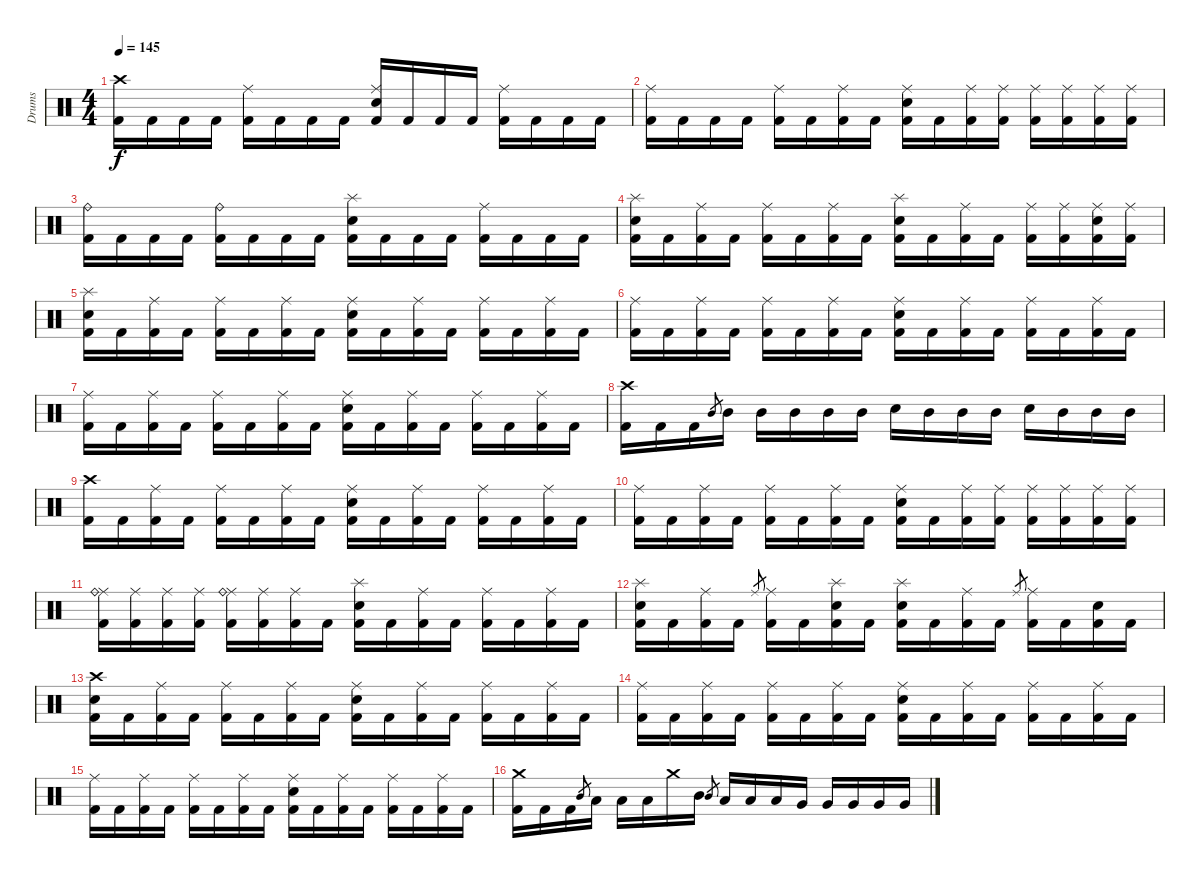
\track ("Drums" "Drums") {instrument percussion}
\staff {score}
\articulation defaults
\ts (4 4)
\tempo 145
\clef neutral
\ks c
("Crash high (hit)" "Kick (hit) 2").16{dy f} "Kick (hit) 2".16 "Kick (hit) 2".16 "Kick (hit) 2".16 ("Ride (middle)" "Kick (hit) 2").16 "Kick (hit) 2".16 "Kick (hit) 2".16 "Kick (hit) 2".16 ("Ride (middle)" "Electric Snare (hit)" "Kick (hit) 2").16 "Kick (hit) 2".16 "Kick (hit) 2".16 "Kick (hit) 2".16 ("Ride (middle)" "Kick (hit) 2").16 "Kick (hit) 2".16 "Kick (hit) 2".16 "Kick (hit) 2".16 |
("Ride (middle)" "Kick (hit) 2").16 "Kick (hit) 2".16 "Kick (hit) 2".16 "Kick (hit) 2".16 ("Ride (middle)" "Kick (hit) 2").16 "Kick (hit) 2".16 ("Ride (middle)" "Kick (hit) 2").16 "Kick (hit) 2".16 ("Ride (middle)" "Electric Snare (hit)" "Kick (hit) 2").16 "Kick (hit) 2".16 ("Ride (middle)" "Kick (hit) 2").16 ("Ride (middle)" "Kick (hit) 2").16 ("Ride (middle)" "Kick (hit) 2").16 ("Ride (middle)" "Kick (hit) 2").16 ("Ride (middle)" "Kick (hit) 2").16 ("Ride (middle)" "Kick (hit) 2").16 |
("Ride (bell)" "Kick (hit) 2").16 "Kick (hit) 2".16 "Kick (hit) 2".16 "Kick (hit) 2".16 ("Ride (bell)" "Kick (hit) 2").16 "Kick (hit) 2".16 "Kick (hit) 2".16 "Kick (hit) 2".16 ("Splash (hit)" "Electric Snare (hit)" "Kick (hit) 2").16 "Kick (hit) 2".16 "Kick (hit) 2".16 "Kick (hit) 2".16 ("Ride (middle)" "Kick (hit) 2").16 "Kick (hit) 2".16 "Kick (hit) 2".16 "Kick (hit) 2".16 |
("Splash (hit)" "Electric Snare (hit)" "Kick (hit) 2").16 "Kick (hit) 2".16 ("Ride (middle)" "Kick (hit) 2").16 "Kick (hit) 2".16 ("Ride (middle)" "Kick (hit) 2").16 "Kick (hit) 2".16 ("Ride (middle)" "Kick (hit) 2").16 "Kick (hit) 2".16 ("Splash (hit)" "Electric Snare (hit)" "Kick (hit) 2").16 "Kick (hit) 2".16 ("Ride (middle)" "Kick (hit) 2").16 "Kick (hit) 2".16 ("Ride (middle)" "Kick (hit) 2").16 ("Ride (middle)" "Kick (hit) 2").16 ("Ride (middle)" "Electric Snare (hit)" "Kick (hit) 2").16 ("Ride (middle)" "Kick (hit) 2").16 |
("Splash (hit)" "Electric Snare (hit)" "Kick (hit) 2").16 "Kick (hit) 2".16 ("Ride (middle)" "Kick (hit) 2").16 "Kick (hit) 2".16 ("Ride (middle)" "Kick (hit) 2").16 "Kick (hit) 2".16 ("Ride (middle)" "Kick (hit) 2").16 "Kick (hit) 2".16 ("Ride (middle)" "Electric Snare (hit)" "Kick (hit) 2").16 "Kick (hit) 2".16 ("Ride (middle)" "Kick (hit) 2").16 "Kick (hit) 2".16 ("Ride (middle)" "Kick (hit) 2").16 "Kick (hit) 2".16 ("Ride (middle)" "Kick (hit) 2").16 "Kick (hit) 2".16 |
("Ride (middle)" "Kick (hit) 2").16 "Kick (hit) 2".16 ("Ride (middle)" "Kick (hit) 2").16 "Kick (hit) 2".16 ("Ride (middle)" "Kick (hit) 2").16 "Kick (hit) 2".16 ("Ride (middle)" "Kick (hit) 2").16 "Kick (hit) 2".16 ("Ride (middle)" "Electric Snare (hit)" "Kick (hit) 2").16 "Kick (hit) 2".16 ("Ride (middle)" "Kick (hit) 2").16 "Kick (hit) 2".16 ("Ride (middle)" "Kick (hit) 2").16 "Kick (hit) 2".16 ("Ride (middle)" "Kick (hit) 2").16 "Kick (hit) 2".16 |
("Ride (middle)" "Kick (hit) 2").16 "Kick (hit) 2".16 ("Ride (middle)" "Kick (hit) 2").16 "Kick (hit) 2".16 ("Ride (middle)" "Kick (hit) 2").16 "Kick (hit) 2".16 ("Ride (middle)" "Kick (hit) 2").16 "Kick (hit) 2".16 ("Ride (middle)" "Electric Snare (hit)" "Kick (hit) 2").16 "Kick (hit) 2".16 ("Ride (middle)" "Kick (hit) 2").16 "Kick (hit) 2".16 ("Ride (middle)" "Kick (hit) 2").16 "Kick (hit) 2".16 ("Ride (middle)" "Kick (hit) 2").16 "Kick (hit) 2".16 |
("Crash high (hit)" "Kick (hit) 2").16 "Kick (hit) 2".16 "Kick (hit) 2".16 "Mid Tom (hit)".8{gr} "Mid Tom (hit)".16 "Mid Tom (hit)".16 "Mid Tom (hit)".16 "Mid Tom (hit)".16 "Mid Tom (hit)".16 "Electric Snare (hit)".16 "Mid Tom (hit)".16 "Mid Tom (hit)".16 "Mid Tom (hit)".16 "Electric Snare (hit)".16 "Mid Tom (hit)".16 "Mid Tom (hit)".16 "Mid Tom (hit)".16 |
("Crash high (hit)" "Kick (hit) 2").16 "Kick (hit) 2".16 ("Ride (middle)" "Kick (hit) 2").16 "Kick (hit) 2".16 ("Ride (middle)" "Kick (hit) 2").16 "Kick (hit) 2".16 ("Ride (middle)" "Kick (hit) 2").16 "Kick (hit) 2".16 ("Ride (middle)" "Electric Snare (hit)" "Kick (hit) 2").16 "Kick (hit) 2".16 ("Ride (middle)" "Kick (hit) 2").16 "Kick (hit) 2".16 ("Ride (middle)" "Kick (hit) 2").16 "Kick (hit) 2".16 ("Ride (middle)" "Kick (hit) 2").16 "Kick (hit) 2".16 |
("Ride (middle)" "Kick (hit) 2").16 "Kick (hit) 2".16 ("Ride (middle)" "Kick (hit) 2").16 "Kick (hit) 2".16 ("Ride (middle)" "Kick (hit) 2").16 "Kick (hit) 2".16 ("Ride (middle)" "Kick (hit) 2").16 "Kick (hit) 2".16 ("Ride (middle)" "Electric Snare (hit)" "Kick (hit) 2").16 "Kick (hit) 2".16 ("Ride (middle)" "Kick (hit) 2").16 ("Ride (middle)" "Kick (hit) 2").16 ("Ride (middle)" "Kick (hit) 2").16 ("Ride (middle)" "Kick (hit) 2").16 ("Ride (middle)" "Kick (hit) 2").16 ("Ride (middle)" "Kick (hit) 2").16 |
("Ride (middle)" "Ride (bell)" "Kick (hit) 2").16 ("Ride (middle)" "Kick (hit) 2").16 ("Ride (middle)" "Kick (hit) 2").16 ("Ride (middle)" "Kick (hit) 2").16 ("Ride (middle)" "Ride (bell)" "Kick (hit) 2").16 ("Ride (middle)" "Kick (hit) 2").16 ("Ride (middle)" "Kick (hit) 2").16 "Kick (hit) 2".16 ("Splash (hit)" "Electric Snare (hit)" "Kick (hit) 2").16 "Kick (hit) 2".16 ("Ride (middle)" "Kick (hit) 2").16 "Kick (hit) 2".16 ("Ride (middle)" "Kick (hit) 2").16 "Kick (hit) 2".16 ("Ride (middle)" "Kick (hit) 2").16 "Kick (hit) 2".16 |
("Splash (hit)" "Electric Snare (hit)" "Kick (hit) 2").16 "Kick (hit) 2".16 ("Ride (middle)" "Kick (hit) 2").16 "Kick (hit) 2".16 "Ride (middle)".8{gr} ("Ride (middle)" "Kick (hit) 2").16 "Kick (hit) 2".16 ("Splash (hit)" "Electric Snare (hit)" "Kick (hit) 2").16 "Kick (hit) 2".16 ("Splash (hit)" "Electric Snare (hit)" "Kick (hit) 2").16 "Kick (hit) 2".16 ("Ride (middle)" "Kick (hit) 2").16 "Kick (hit) 2".16 "Ride (middle)".8{gr} ("Ride (middle)" "Kick (hit) 2").16 "Kick (hit) 2".16 ("Electric Snare (hit)" "Kick (hit) 2").16 "Kick (hit) 2".16 |
("Crash high (hit)" "Electric Snare (hit)" "Kick (hit) 2").16 "Kick (hit) 2".16 ("Ride (middle)" "Kick (hit) 2").16 "Kick (hit) 2".16 ("Ride (middle)" "Kick (hit) 2").16 "Kick (hit) 2".16 ("Ride (middle)" "Kick (hit) 2").16 "Kick (hit) 2".16 ("Ride (middle)" "Electric Snare (hit)" "Kick (hit) 2").16 "Kick (hit) 2".16 ("Ride (middle)" "Kick (hit) 2").16 "Kick (hit) 2".16 ("Ride (middle)" "Kick (hit) 2").16 "Kick (hit) 2".16 ("Ride (middle)" "Kick (hit) 2").16 "Kick (hit) 2".16 |
("Ride (middle)" "Kick (hit) 2").16 "Kick (hit) 2".16 ("Ride (middle)" "Kick (hit) 2").16 "Kick (hit) 2".16 ("Ride (middle)" "Kick (hit) 2").16 "Kick (hit) 2".16 ("Ride (middle)" "Kick (hit) 2").16 "Kick (hit) 2".16 ("Ride (middle)" "Electric Snare (hit)" "Kick (hit) 2").16 "Kick (hit) 2".16 ("Ride (middle)" "Kick (hit) 2").16 "Kick (hit) 2".16 ("Ride (middle)" "Kick (hit) 2").16 "Kick (hit) 2".16 ("Ride (middle)" "Kick (hit) 2").16 "Kick (hit) 2".16 |
("Ride (middle)" "Kick (hit) 2").16 "Kick (hit) 2".16 ("Ride (middle)" "Kick (hit) 2").16 "Kick (hit) 2".16 ("Ride (middle)" "Kick (hit) 2").16 "Kick (hit) 2".16 ("Ride (middle)" "Kick (hit) 2").16 "Kick (hit) 2".16 ("Ride (middle)" "Electric Snare (hit)" "Kick (hit) 2").16 "Kick (hit) 2".16 ("Ride (middle)" "Kick (hit) 2").16 "Kick (hit) 2".16 ("Ride (middle)" "Kick (hit) 2").16 "Kick (hit) 2".16 ("Ride (middle)" "Kick (hit) 2").16 "Kick (hit) 2".16 |
("Crash medium (hit)" "Kick (hit) 2").16 "Kick (hit) 2".16 "Kick (hit) 2".16 "Mid Tom (hit)".8{gr} "Low Tom (hit)".16 "Low Tom (hit)".16 "Low Tom (hit)".16 "Crash medium (hit)".16 "Mid Tom (hit)".16 "Mid Tom (hit)".8{gr} "Low Tom (hit)".16 "Low Tom (hit)".16 "Low Tom (hit)".16 "Very Low Tom (hit)".16 "Very Low Tom (hit)".16 "Very Low Tom (hit)".16 "Very Low Tom (hit)".16 "Very Low Tom (hit)".16
